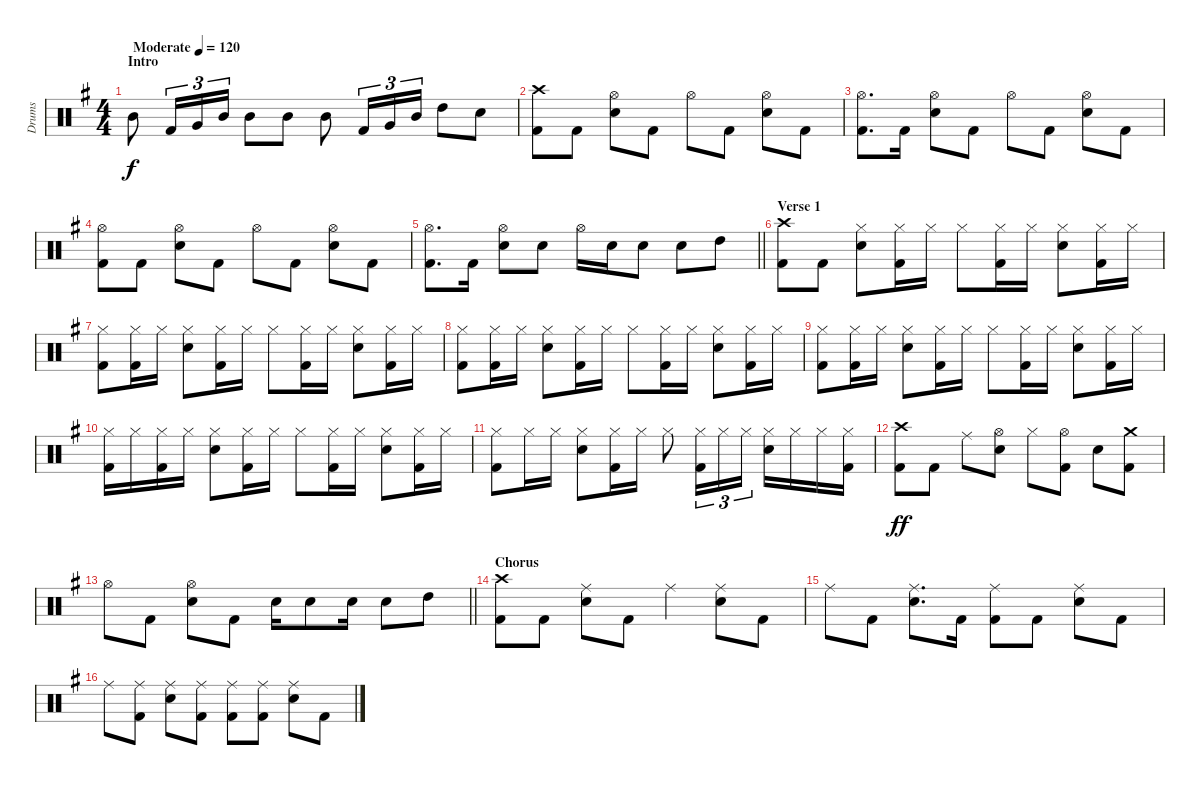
\track ("Drums" "Drums") {instrument percussion}
\staff {score}
\articulation defaults
\ts (4 4)
\section ("" "Intro")
\tempo (120 "Moderate")
\clef neutral
\ks g "Mid Tom (hit)".8{dy f} "Kick (hit) 2".16{tu (3 2)} "Very Low Tom (hit)".16{tu (3 2)} "Mid Tom (hit)".16{tu (3 2)} "Mid Tom (hit)".8 "Mid Tom (hit)".8 "Mid Tom (hit)".8 "Kick (hit) 2".16{tu (3 2)} "Very Low Tom (hit)".16{tu (3 2)} "Mid Tom (hit)".16{tu (3 2)} "High Tom (hit)".8 "Snare (hit) 2".8
|
("Crash high (hit)" "Kick (hit) 2").8 "Kick (hit) 2".8 ("Hi-Hat (open)" "Snare (hit) 2").8 "Kick (hit) 2".8 "Hi-Hat (open)".8 "Kick (hit) 2".8 ("Hi-Hat (open)" "Snare (hit) 2").8 "Kick (hit) 2".8 |
("Hi-Hat (open)" "Kick (hit) 2").8{d} "Kick (hit) 2".16 ("Hi-Hat (open)" "Snare (hit) 2").8 "Kick (hit) 2".8 "Hi-Hat (open)".8 "Kick (hit) 2".8 ("Hi-Hat (open)" "Snare (hit) 2").8 "Kick (hit) 2".8 |
("Hi-Hat (open)" "Kick (hit) 2").8 "Kick (hit) 2".8 ("Hi-Hat (open)" "Snare (hit) 2").8 "Kick (hit) 2".8 "Hi-Hat (open)".8 "Kick (hit) 2".8 ("Hi-Hat (open)" "Snare (hit) 2").8 "Kick (hit) 2".8 |
\barLineRight lightlight
("Hi-Hat (open)" "Kick (hit) 2").8{d} "Kick (hit) 2".16 ("Hi-Hat (open)" "Snare (hit) 2").8 "Snare (hit) 2".8 "Hi-Hat (open)".16 "Snare (hit) 2".16 "Snare (hit) 2".8 "Snare (hit) 2".8 "High Tom (hit)".8 |
\section ("" "Verse 1")
("Crash high (hit)" "Kick (hit) 2").8 "Kick (hit) 2".8 ("Hi-Hat (closed)" "Snare (hit) 2").8 ("Hi-Hat (closed)" "Kick (hit) 2").16 "Hi-Hat (closed)".16 "Hi-Hat (closed)".8 ("Hi-Hat (closed)" "Kick (hit) 2").16 "Hi-Hat (closed)".16 ("Hi-Hat (closed)" "Snare (hit) 2").8 ("Hi-Hat (closed)" "Kick (hit) 2").16 "Hi-Hat (closed)".16 |
("Hi-Hat (closed)" "Kick (hit) 2").8 ("Hi-Hat (closed)" "Kick (hit) 2").16 "Hi-Hat (closed)".16 ("Hi-Hat (closed)" "Snare (hit) 2").8 ("Hi-Hat (closed)" "Kick (hit) 2").16 "Hi-Hat (closed)".16 "Hi-Hat (closed)".8 ("Hi-Hat (closed)" "Kick (hit) 2").16 "Hi-Hat (closed)".16 ("Hi-Hat (closed)" "Snare (hit) 2").8 ("Hi-Hat (closed)" "Kick (hit) 2").16 "Hi-Hat (closed)".16 |
("Hi-Hat (closed)" "Kick (hit) 2").8 ("Hi-Hat (closed)" "Kick (hit) 2").16 "Hi-Hat (closed)".16 ("Hi-Hat (closed)" "Snare (hit) 2").8 ("Hi-Hat (closed)" "Kick (hit) 2").16 "Hi-Hat (closed)".16 "Hi-Hat (closed)".8 ("Hi-Hat (closed)" "Kick (hit) 2").16 "Hi-Hat (closed)".16 ("Hi-Hat (closed)" "Snare (hit) 2").8 ("Hi-Hat (closed)" "Kick (hit) 2").16 "Hi-Hat (closed)".16 |
("Hi-Hat (closed)" "Kick (hit) 2").8 ("Hi-Hat (closed)" "Kick (hit) 2").16 "Hi-Hat (closed)".16 ("Hi-Hat (closed)" "Snare (hit) 2").8 ("Hi-Hat (closed)" "Kick (hit) 2").16 "Hi-Hat (closed)".16 "Hi-Hat (closed)".8 ("Hi-Hat (closed)" "Kick (hit) 2").16 "Hi-Hat (closed)".16 ("Hi-Hat (closed)" "Snare (hit) 2").8 ("Hi-Hat (closed)" "Kick (hit) 2").16 "Hi-Hat (closed)".16 |
("Hi-Hat (closed)" "Kick (hit) 2").16 "Hi-Hat (closed)".16 ("Hi-Hat (closed)" "Kick (hit) 2").16 "Hi-Hat (closed)".16 ("Hi-Hat (closed)" "Snare (hit) 2").8 ("Hi-Hat (closed)" "Kick (hit) 2").16 "Hi-Hat (closed)".16 "Hi-Hat (closed)".8 ("Hi-Hat (closed)" "Kick (hit) 2").16 "Hi-Hat (closed)".16 ("Hi-Hat (closed)" "Snare (hit) 2").8 ("Hi-Hat (closed)" "Kick (hit) 2").16 "Hi-Hat (closed)".16 |
("Hi-Hat (closed)" "Kick (hit) 2").8 "Hi-Hat (closed)".16 "Hi-Hat (closed)".16 ("Hi-Hat (closed)" "Snare (hit) 2").8 ("Hi-Hat (closed)" "Kick (hit) 2").16 "Hi-Hat (closed)".16 "Hi-Hat (closed)".8 ("Hi-Hat (closed)" "Kick (hit) 2").16{tu (3 2)} "Hi-Hat (closed)".16{tu (3 2)} "Hi-Hat (closed)".16{tu (3 2)} ("Hi-Hat (closed)" "Snare (hit) 2").16 "Hi-Hat (closed)".16 "Hi-Hat (closed)".16 ("Hi-Hat (closed)" "Kick (hit) 2").16 |
("Crash high (hit)" "Kick (hit) 2").8{dy ff} "Kick (hit) 2".8 "Ride (middle)".8 ("Hi-Hat (open)" "Snare (hit) 2").8 "Hi-Hat (closed)".8 ("Hi-Hat (open)" "Kick (hit) 2").8 "Snare (hit) 2".8 ("Crash medium (hit)" "Kick (hit) 2").8 |
\barLineRight lightlight "Hi-Hat (open)".8 "Kick (hit) 2".8
("Hi-Hat (open)" "Snare (hit) 2").8 "Kick (hit) 2".8 "Snare (hit) 2".16 "Snare (hit) 2".8 "Snare (hit) 2".16 "Snare (hit) 2".8 "High Tom (hit)".8 |
\section ("" "Chorus")
("Crash high (hit)" "Kick (hit) 2").8 "Kick (hit) 2".8 ("Ride (middle)" "Snare (hit) 2").8 "Kick (hit) 2".8 "Ride (middle)".4 ("Ride (middle)" "Snare (hit) 2").8 "Kick (hit) 2".8 |
"Ride (middle)".8 "Kick (hit) 2".8 ("Ride (middle)" "Snare (hit) 2").8{d} "Kick (hit) 2".16 ("Ride (middle)" "Kick (hit) 2").8 "Kick (hit) 2".8 ("Ride (middle)" "Snare (hit) 2").8 "Kick (hit) 2".8 |
"Ride (middle)".8 ("Ride (middle)" "Kick (hit) 2").8 ("Ride (middle)" "Snare (hit) 2").8 ("Ride (middle)" "Kick (hit) 2").8 ("Ride (middle)" "Kick (hit) 2").8 ("Ride (middle)" "Kick (hit) 2").8 ("Ride (middle)" "Snare (hit) 2").8 "Kick (hit) 2".8
